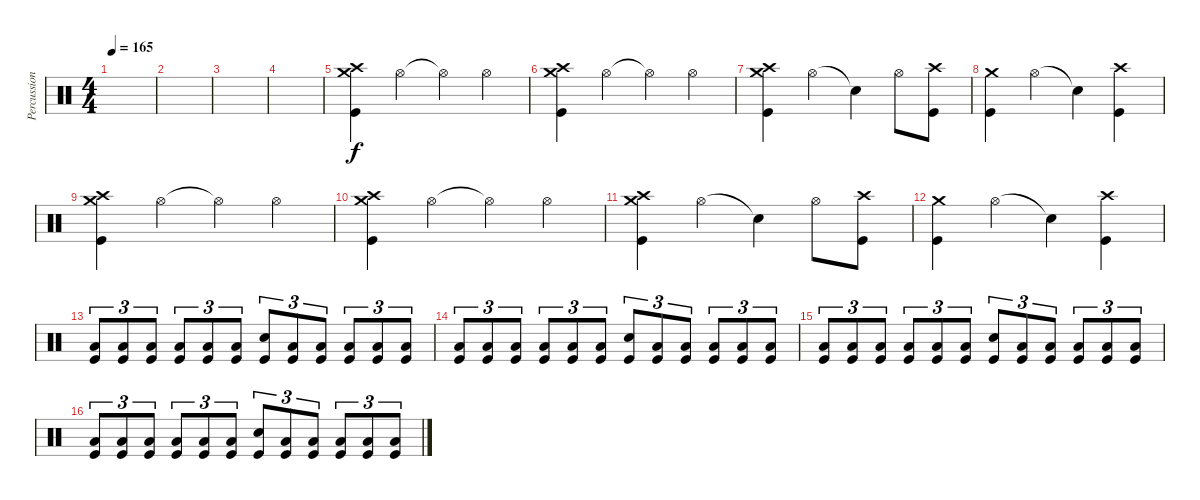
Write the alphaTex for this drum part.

\track ("Percussion" "Percussion") {instrument percussion}
\staff {score}
\articulation defaults
\ts (4 4)
\tempo 165
\clef neutral
\ks c
|
|
|
|
("Crash medium (hit)" "Crash high (hit)" "Kick (hit)").4 "Hi-Hat (open)".4 "Hi-Hat (open)"{t}.4 "Hi-Hat (open)".4 |
("Crash medium (hit)" "Crash high (hit)" "Kick (hit)").4 "Hi-Hat (open)".4 "Hi-Hat (open)"{t}.4 "Hi-Hat (open)".4 |
("Crash medium (hit)" "Crash high (hit)" "Kick (hit)").4 "Hi-Hat (open)".4 "Snare (hit)"{t}.4 "Hi-Hat (open)".8 ("Crash high (hit)" "Kick (hit)").8 |
("Crash medium (hit)" "Kick (hit)").4 "Hi-Hat (open)".4 "Snare (hit)"{t}.4 ("Crash high (hit)" "Kick (hit)").4 |
("Crash medium (hit)" "Crash high (hit)" "Kick (hit)").4 "Hi-Hat (open)".4 "Hi-Hat (open)"{t}.4 "Hi-Hat (open)".4 |
("Crash medium (hit)" "Crash high (hit)" "Kick (hit)").4 "Hi-Hat (open)".4 "Hi-Hat (open)"{t}.4 "Hi-Hat (open)".4 |
("Crash medium (hit)" "Crash high (hit)" "Kick (hit)").4 "Hi-Hat (open)".4 "Snare (hit)"{t}.4 "Hi-Hat (open)".8 ("Crash high (hit)" "Kick (hit)").8 |
("Crash medium (hit)" "Kick (hit)").4 "Hi-Hat (open)".4 "Snare (hit)"{t}.4 ("Crash high (hit)" "Kick (hit)").4 |
("Low Floor Tom (hit)" "Kick (hit)").8{tu (3 2)} ("Low Floor Tom (hit)" "Kick (hit)").8{tu (3 2)} ("Low Floor Tom (hit)" "Kick (hit)").8{tu (3 2)} ("Low Floor Tom (hit)" "Kick (hit)").8{tu (3 2)} ("Low Floor Tom (hit)" "Kick (hit)").8{tu (3 2)} ("Low Floor Tom (hit)" "Kick (hit)").8{tu (3 2)} ("Snare (hit) 2" "Kick (hit)").8{tu (3 2)} ("Low Floor Tom (hit)" "Kick (hit)").8{tu (3 2)} ("Low Floor Tom (hit)" "Kick (hit)").8{tu (3 2)} ("Low Floor Tom (hit)" "Kick (hit)").8{tu (3 2)} ("Low Floor Tom (hit)" "Kick (hit)").8{tu (3 2)} ("Low Tom (hit)" "Kick (hit)").8{tu (3 2)} |
("Low Floor Tom (hit)" "Kick (hit)").8{tu (3 2)} ("Low Floor Tom (hit)" "Kick (hit)").8{tu (3 2)} ("Low Floor Tom (hit)" "Kick (hit)").8{tu (3 2)} ("Low Floor Tom (hit)" "Kick (hit)").8{tu (3 2)} ("Low Floor Tom (hit)" "Kick (hit)").8{tu (3 2)} ("Low Floor Tom (hit)" "Kick (hit)").8{tu (3 2)} ("Snare (hit) 2" "Kick (hit)").8{tu (3 2)} ("Low Floor Tom (hit)" "Kick (hit)").8{tu (3 2)} ("Low Floor Tom (hit)" "Kick (hit)").8{tu (3 2)} ("Low Floor Tom (hit)" "Kick (hit)").8{tu (3 2)} ("Low Floor Tom (hit)" "Kick (hit)").8{tu (3 2)} ("Low Tom (hit)" "Kick (hit)").8{tu (3 2)} |
("Low Floor Tom (hit)" "Kick (hit)").8{tu (3 2)} ("Low Floor Tom (hit)" "Kick (hit)").8{tu (3 2)} ("Low Floor Tom (hit)" "Kick (hit)").8{tu (3 2)} ("Low Floor Tom (hit)" "Kick (hit)").8{tu (3 2)} ("Low Floor Tom (hit)" "Kick (hit)").8{tu (3 2)} ("Low Floor Tom (hit)" "Kick (hit)").8{tu (3 2)} ("Snare (hit) 2" "Kick (hit)").8{tu (3 2)} ("Low Floor Tom (hit)" "Kick (hit)").8{tu (3 2)} ("Low Floor Tom (hit)" "Kick (hit)").8{tu (3 2)} ("Low Floor Tom (hit)" "Kick (hit)").8{tu (3 2)} ("Low Floor Tom (hit)" "Kick (hit)").8{tu (3 2)} ("Low Tom (hit)" "Kick (hit)").8{tu (3 2)} |
("Low Floor Tom (hit)" "Kick (hit)").8{tu (3 2)} ("Low Floor Tom (hit)" "Kick (hit)").8{tu (3 2)} ("Low Floor Tom (hit)" "Kick (hit)").8{tu (3 2)} ("Low Floor Tom (hit)" "Kick (hit)").8{tu (3 2)} ("Low Floor Tom (hit)" "Kick (hit)").8{tu (3 2)} ("Low Floor Tom (hit)" "Kick (hit)").8{tu (3 2)} ("Snare (hit) 2" "Kick (hit)").8{tu (3 2)} ("Low Floor Tom (hit)" "Kick (hit)").8{tu (3 2)} ("Low Floor Tom (hit)" "Kick (hit)").8{tu (3 2)} ("Low Floor Tom (hit)" "Kick (hit)").8{tu (3 2)} ("Low Floor Tom (hit)" "Kick (hit)").8{tu (3 2)} ("Low Tom (hit)" "Kick (hit)").8{tu (3 2)}
